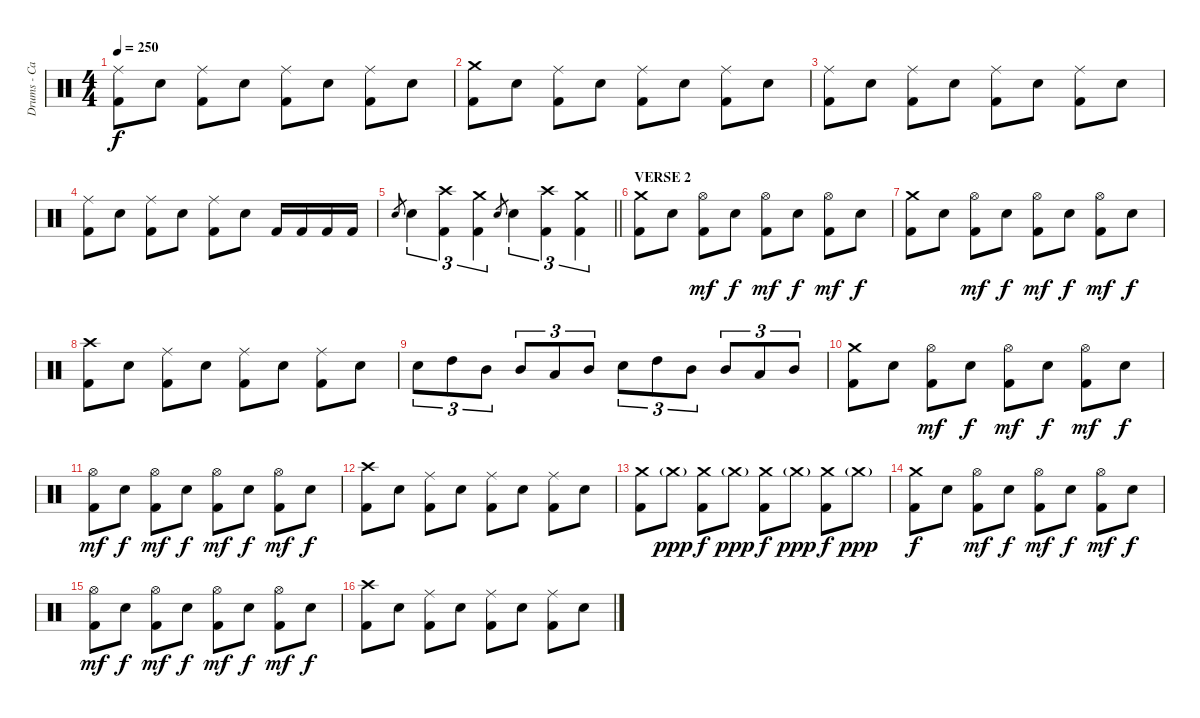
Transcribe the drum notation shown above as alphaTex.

\track ("Drums - Carlos Cruz" "Drums - Ca") {instrument percussion}
\staff {score}
\articulation defaults
\ts (4 4)
\tempo 250
\clef neutral
\ks c
("Ride (middle)" "Kick (hit) 2").8{dy f} "Snare (hit) 2".8 ("Ride (middle)" "Kick (hit) 2").8 "Snare (hit) 2".8 ("Ride (middle)" "Kick (hit) 2").8 "Snare (hit) 2".8 ("Ride (middle)" "Kick (hit) 2").8 "Snare (hit) 2".8 |
("Crash medium (hit)" "Kick (hit) 2").8 "Snare (hit) 2".8 ("Ride (middle)" "Kick (hit) 2").8 "Snare (hit) 2".8 ("Ride (middle)" "Kick (hit) 2").8 "Snare (hit) 2".8 ("Ride (middle)" "Kick (hit) 2").8 "Snare (hit) 2".8 |
("Ride (middle)" "Kick (hit) 2").8 "Snare (hit) 2".8 ("Ride (middle)" "Kick (hit) 2").8 "Snare (hit) 2".8 ("Ride (middle)" "Kick (hit) 2").8 "Snare (hit) 2".8 ("Ride (middle)" "Kick (hit) 2").8 "Snare (hit) 2".8 |
("Ride (middle)" "Kick (hit) 2").8 "Snare (hit) 2".8 ("Ride (middle)" "Kick (hit) 2").8 "Snare (hit) 2".8 ("Ride (middle)" "Kick (hit) 2").8 "Snare (hit) 2".8 "Kick (hit) 2".16 "Kick (hit) 2".16 "Kick (hit) 2".16 "Kick (hit) 2".16 |
\barLineRight lightlight "Snare (hit) 2".8{gr} "Snare (hit) 2".4{tu (3 2)}
("Crash high (hit)" "Kick (hit) 2").4{tu (3 2)} ("Crash medium (hit)" "Kick (hit) 2").4{tu (3 2)} "Snare (hit) 2".8{gr} "Snare (hit) 2".4{tu (3 2)} ("Crash high (hit)" "Kick (hit) 2").4{tu (3 2)} ("Crash medium (hit)" "Kick (hit) 2").4{tu (3 2)} |
\section ("" "VERSE 2")
("Crash medium (hit)" "Kick (hit) 2").8 "Snare (hit) 2".8 ("Hi-Hat (open)" "Kick (hit) 2").8{dy mf} "Snare (hit) 2".8{dy f} ("Hi-Hat (open)" "Kick (hit) 2").8{dy mf} "Snare (hit) 2".8{dy f} ("Hi-Hat (open)" "Kick (hit) 2").8{dy mf} "Snare (hit) 2".8{dy f} |
("Crash medium (hit)" "Kick (hit) 2").8 "Snare (hit) 2".8 ("Hi-Hat (open)" "Kick (hit) 2").8{dy mf} "Snare (hit) 2".8{dy f} ("Hi-Hat (open)" "Kick (hit) 2").8{dy mf} "Snare (hit) 2".8{dy f} ("Hi-Hat (open)" "Kick (hit) 2").8{dy mf} "Snare (hit) 2".8{dy f} |
("Crash high (hit)" "Kick (hit) 2").8 "Snare (hit) 2".8 ("Ride (middle)" "Kick (hit) 2").8 "Snare (hit) 2".8 ("Ride (middle)" "Kick (hit) 2").8 "Snare (hit) 2".8 ("Ride (middle)" "Kick (hit) 2").8 "Snare (hit) 2".8 |
"Snare (hit) 2".8{tu (3 2)} "High Tom (hit)".8{tu (3 2)} "Mid Tom (hit)".8{tu (3 2)} "Mid Tom (hit)".8{tu (3 2)} "Low Tom (hit)".8{tu (3 2)} "Mid Tom (hit)".8{tu (3 2)} "Snare (hit) 2".8{tu (3 2)} "High Tom (hit)".8{tu (3 2)} "Mid Tom (hit)".8{tu (3 2)} "Mid Tom (hit)".8{tu (3 2)} "Low Tom (hit)".8{tu (3 2)} "Mid Tom (hit)".8{tu (3 2)} |
("Crash medium (hit)" "Kick (hit) 2").8 "Snare (hit) 2".8 ("Hi-Hat (open)" "Kick (hit) 2").8{dy mf} "Snare (hit) 2".8{dy f} ("Hi-Hat (open)" "Kick (hit) 2").8{dy mf} "Snare (hit) 2".8{dy f} ("Hi-Hat (open)" "Kick (hit) 2").8{dy mf} "Snare (hit) 2".8{dy f} |
("Hi-Hat (open)" "Kick (hit) 2").8{dy mf} "Snare (hit) 2".8{dy f} ("Hi-Hat (open)" "Kick (hit) 2").8{dy mf} "Snare (hit) 2".8{dy f} ("Hi-Hat (open)" "Kick (hit) 2").8{dy mf} "Snare (hit) 2".8{dy f} ("Hi-Hat (open)" "Kick (hit) 2").8{dy mf} "Snare (hit) 2".8{dy f} |
("Crash high (hit)" "Kick (hit) 2").8 "Snare (hit) 2".8 ("Ride (middle)" "Kick (hit) 2").8 "Snare (hit) 2".8 ("Ride (middle)" "Kick (hit) 2").8 "Snare (hit) 2".8 ("Ride (middle)" "Kick (hit) 2").8 "Snare (hit) 2".8 |
("Crash medium (hit)" "Kick (hit) 2").8 "Crash medium (hit)"{g}.8{dy ppp} ("Crash medium (hit)" "Kick (hit) 2").8{dy f} "Crash medium (hit)"{g}.8{dy ppp} ("Crash medium (hit)" "Kick (hit) 2").8{dy f} "Crash medium (hit)"{g}.8{dy ppp} ("Crash medium (hit)" "Kick (hit) 2").8{dy f} "Crash medium (hit)"{g}.8{dy ppp} |
("Crash medium (hit)" "Kick (hit) 2").8{dy f} "Snare (hit) 2".8 ("Hi-Hat (open)" "Kick (hit) 2").8{dy mf} "Snare (hit) 2".8{dy f} ("Hi-Hat (open)" "Kick (hit) 2").8{dy mf} "Snare (hit) 2".8{dy f} ("Hi-Hat (open)" "Kick (hit) 2").8{dy mf} "Snare (hit) 2".8{dy f} |
("Hi-Hat (open)" "Kick (hit) 2").8{dy mf} "Snare (hit) 2".8{dy f} ("Hi-Hat (open)" "Kick (hit) 2").8{dy mf} "Snare (hit) 2".8{dy f} ("Hi-Hat (open)" "Kick (hit) 2").8{dy mf} "Snare (hit) 2".8{dy f} ("Hi-Hat (open)" "Kick (hit) 2").8{dy mf} "Snare (hit) 2".8{dy f} |
("Crash high (hit)" "Kick (hit) 2").8 "Snare (hit) 2".8 ("Ride (middle)" "Kick (hit) 2").8 "Snare (hit) 2".8 ("Ride (middle)" "Kick (hit) 2").8 "Snare (hit) 2".8 ("Ride (middle)" "Kick (hit) 2").8 "Snare (hit) 2".8
